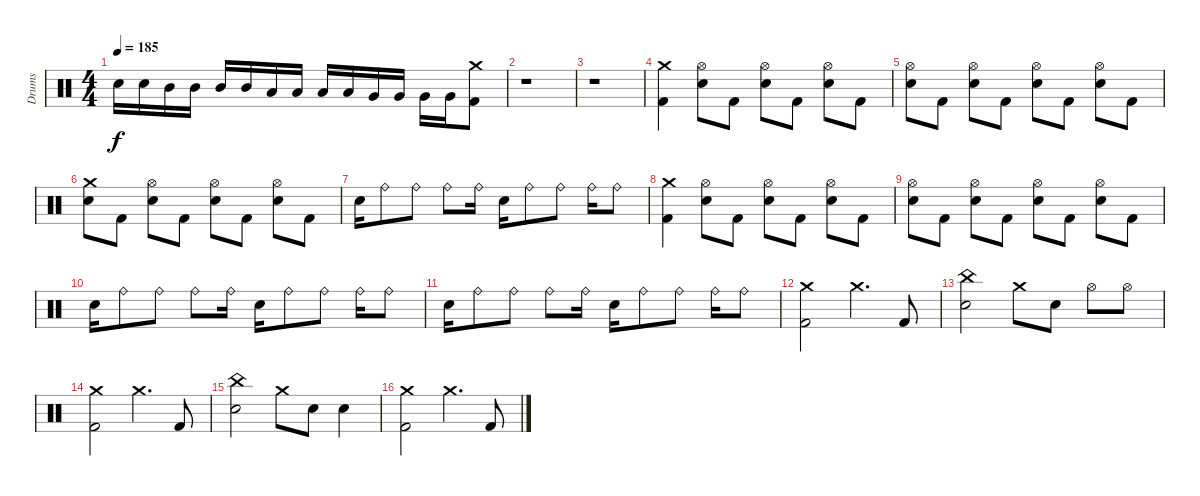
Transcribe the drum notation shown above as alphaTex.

\track ("Drums" "Drums") {instrument percussion}
\staff
\articulation defaults
\ts (4 4)
\tempo 185
\clef neutral
\ks c "Electric Snare (hit)".16{dy f} "Electric Snare (hit)".16 "Mid Tom (hit)".16 "Mid Tom (hit)".16 "Mid Tom (hit)".16 "Mid Tom (hit)".16 "Low Tom (hit)".16 "Low Tom (hit)".16 "Low Tom (hit)".16 "Low Tom (hit)".16 "Very Low Tom (hit)".16 "Very Low Tom (hit)".16 "Very Low Tom (hit)".16 "Very Low Tom (hit)".16
("Crash medium (hit)" "Kick (hit) 2").8 |
r.1 |
r.1 |
("Crash medium (hit)" "Kick (hit) 2").4 ("Hi-Hat (open)" "Electric Snare (hit)").8 "Kick (hit) 2".8 ("Hi-Hat (open)" "Electric Snare (hit)").8 "Kick (hit) 2".8 ("Hi-Hat (open)" "Electric Snare (hit)").8 "Kick (hit) 2".8 |
("Hi-Hat (open)" "Electric Snare (hit)").8 "Kick (hit) 2".8 ("Hi-Hat (open)" "Electric Snare (hit)").8 "Kick (hit) 2".8 ("Hi-Hat (open)" "Electric Snare (hit)").8 "Kick (hit) 2".8 ("Hi-Hat (open)" "Electric Snare (hit)").8 "Kick (hit) 2".8 |
("Crash medium (hit)" "Electric Snare (hit)").8 "Kick (hit) 2".8 ("Hi-Hat (open)" "Electric Snare (hit)").8 "Kick (hit) 2".8 ("Hi-Hat (open)" "Electric Snare (hit)").8 "Kick (hit) 2".8 ("Hi-Hat (open)" "Electric Snare (hit)").8 "Kick (hit) 2".8 |
"Electric Snare (hit)".16 "Ride (bell)".8 "Ride (bell)".8 "Ride (bell)".8 "Ride (bell)".16 "Electric Snare (hit)".16 "Ride (bell)".8 "Ride (bell)".8 "Ride (bell)".16 "Ride (bell)".8 |
("Crash medium (hit)" "Kick (hit) 2").4 ("Hi-Hat (open)" "Electric Snare (hit)").8 "Kick (hit) 2".8 ("Hi-Hat (open)" "Electric Snare (hit)").8 "Kick (hit) 2".8 ("Hi-Hat (open)" "Electric Snare (hit)").8 "Kick (hit) 2".8 |
("Hi-Hat (open)" "Electric Snare (hit)").8 "Kick (hit) 2".8 ("Hi-Hat (open)" "Electric Snare (hit)").8 "Kick (hit) 2".8 ("Hi-Hat (open)" "Electric Snare (hit)").8 "Kick (hit) 2".8 ("Hi-Hat (open)" "Electric Snare (hit)").8 "Kick (hit) 2".8 |
"Electric Snare (hit)".16 "Ride (bell)".8 "Ride (bell)".8 "Ride (bell)".8 "Ride (bell)".16 "Electric Snare (hit)".16 "Ride (bell)".8 "Ride (bell)".8 "Ride (bell)".16 "Ride (bell)".8 |
"Electric Snare (hit)".16 "Ride (bell)".8 "Ride (bell)".8 "Ride (bell)".8 "Ride (bell)".16 "Electric Snare (hit)".16 "Ride (bell)".8 "Ride (bell)".8 "Ride (bell)".16 "Ride (bell)".8 |
("Crash medium (hit)" "Kick (hit) 2").2 "Crash medium (hit)".4{d} "Kick (hit) 2".8 |
("China (hit)" "Electric Snare (hit)").2 "Crash medium (hit)".8 "Electric Snare (hit)".8 "Hi-Hat (open)".8 "Hi-Hat (open)".8 |
("Crash medium (hit)" "Kick (hit) 2").2 "Crash medium (hit)".4{d} "Kick (hit) 2".8 |
("China (hit)" "Electric Snare (hit)").2 "Crash medium (hit)".8 "Electric Snare (hit)".8 "Electric Snare (hit)".4 |
("Crash medium (hit)" "Kick (hit) 2").2 "Crash medium (hit)".4{d} "Kick (hit) 2".8
